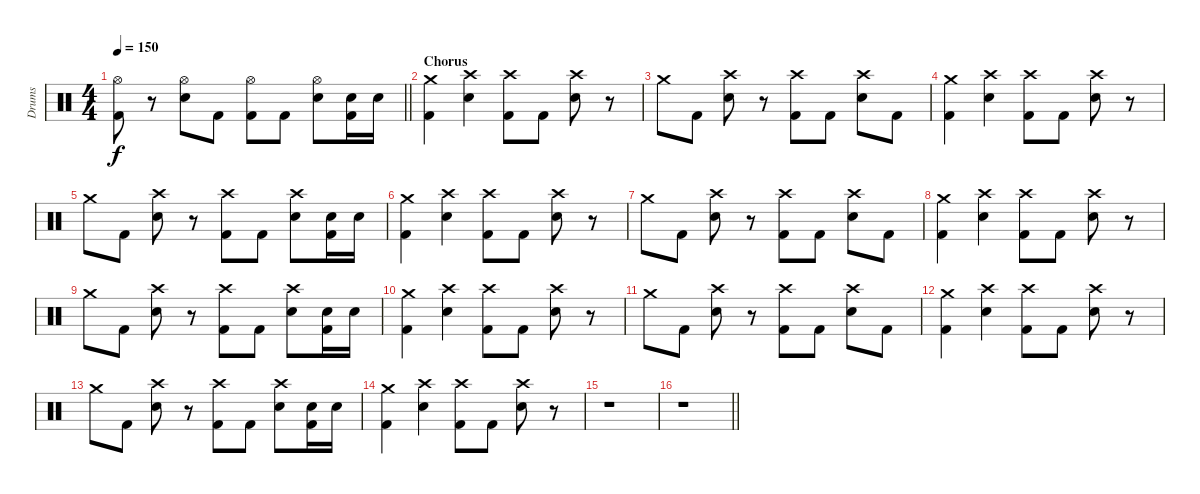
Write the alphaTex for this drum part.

\track ("Drums" "Drums") {instrument percussion}
\staff {score}
\articulation defaults
\ts (4 4)
\tempo 150
\clef neutral
\barLineRight lightlight
\ks c
("Hi-Hat (open)" "Kick (hit) 2").8{dy f} r.8 ("Hi-Hat (open)" "Electric Snare (hit)").8 "Kick (hit) 2".8 ("Hi-Hat (open)" "Kick (hit) 2").8 "Kick (hit) 2".8 ("Hi-Hat (open)" "Electric Snare (hit)").8 ("Electric Snare (hit)" "Kick (hit) 2").16 "Electric Snare (hit)".16 |
\section ("" "Chorus")
("Crash medium (hit)" "Kick (hit) 2").4 ("Crash high (hit)" "Electric Snare (hit)").4 ("Crash high (hit)" "Kick (hit) 2").8 "Kick (hit) 2".8 ("Crash high (hit)" "Electric Snare (hit)").8 r.8 |
"Crash medium (hit)".8 "Kick (hit) 2".8 ("Crash high (hit)" "Electric Snare (hit)").8 r.8 ("Crash high (hit)" "Kick (hit) 2").8 "Kick (hit) 2".8 ("Crash high (hit)" "Electric Snare (hit)").8 "Kick (hit) 2".8 |
("Crash medium (hit)" "Kick (hit) 2").4 ("Crash high (hit)" "Electric Snare (hit)").4 ("Crash high (hit)" "Kick (hit) 2").8 "Kick (hit) 2".8 ("Crash high (hit)" "Electric Snare (hit)").8 r.8 |
"Crash medium (hit)".8 "Kick (hit) 2".8 ("Crash high (hit)" "Electric Snare (hit)").8 r.8 ("Crash high (hit)" "Kick (hit) 2").8 "Kick (hit) 2".8 ("Crash high (hit)" "Electric Snare (hit)").8 ("Electric Snare (hit)" "Kick (hit) 2").16 "Electric Snare (hit)".16 |
("Crash medium (hit)" "Kick (hit) 2").4 ("Crash high (hit)" "Electric Snare (hit)").4 ("Crash high (hit)" "Kick (hit) 2").8 "Kick (hit) 2".8 ("Crash high (hit)" "Electric Snare (hit)").8 r.8 |
"Crash medium (hit)".8 "Kick (hit) 2".8 ("Crash high (hit)" "Electric Snare (hit)").8 r.8 ("Crash high (hit)" "Kick (hit) 2").8 "Kick (hit) 2".8 ("Crash high (hit)" "Electric Snare (hit)").8 "Kick (hit) 2".8 |
("Crash medium (hit)" "Kick (hit) 2").4 ("Crash high (hit)" "Electric Snare (hit)").4 ("Crash high (hit)" "Kick (hit) 2").8 "Kick (hit) 2".8 ("Crash high (hit)" "Electric Snare (hit)").8 r.8 |
"Crash medium (hit)".8 "Kick (hit) 2".8 ("Crash high (hit)" "Electric Snare (hit)").8 r.8 ("Crash high (hit)" "Kick (hit) 2").8 "Kick (hit) 2".8 ("Crash high (hit)" "Electric Snare (hit)").8 ("Electric Snare (hit)" "Kick (hit) 2").16 "Electric Snare (hit)".16 |
("Crash medium (hit)" "Kick (hit) 2").4 ("Crash high (hit)" "Electric Snare (hit)").4 ("Crash high (hit)" "Kick (hit) 2").8 "Kick (hit) 2".8 ("Crash high (hit)" "Electric Snare (hit)").8 r.8 |
"Crash medium (hit)".8 "Kick (hit) 2".8 ("Crash high (hit)" "Electric Snare (hit)").8 r.8 ("Crash high (hit)" "Kick (hit) 2").8 "Kick (hit) 2".8 ("Crash high (hit)" "Electric Snare (hit)").8 "Kick (hit) 2".8 |
("Crash medium (hit)" "Kick (hit) 2").4 ("Crash high (hit)" "Electric Snare (hit)").4 ("Crash high (hit)" "Kick (hit) 2").8 "Kick (hit) 2".8 ("Crash high (hit)" "Electric Snare (hit)").8 r.8 |
"Crash medium (hit)".8 "Kick (hit) 2".8 ("Crash high (hit)" "Electric Snare (hit)").8 r.8 ("Crash high (hit)" "Kick (hit) 2").8 "Kick (hit) 2".8 ("Crash high (hit)" "Electric Snare (hit)").8 ("Electric Snare (hit)" "Kick (hit) 2").16 "Electric Snare (hit)".16 |
("Crash medium (hit)" "Kick (hit) 2").4 ("Crash high (hit)" "Electric Snare (hit)").4 ("Crash high (hit)" "Kick (hit) 2").8 "Kick (hit) 2".8 ("Crash high (hit)" "Electric Snare (hit)").8 r.8 |
r.1 |
\barLineRight lightlight
r.1
